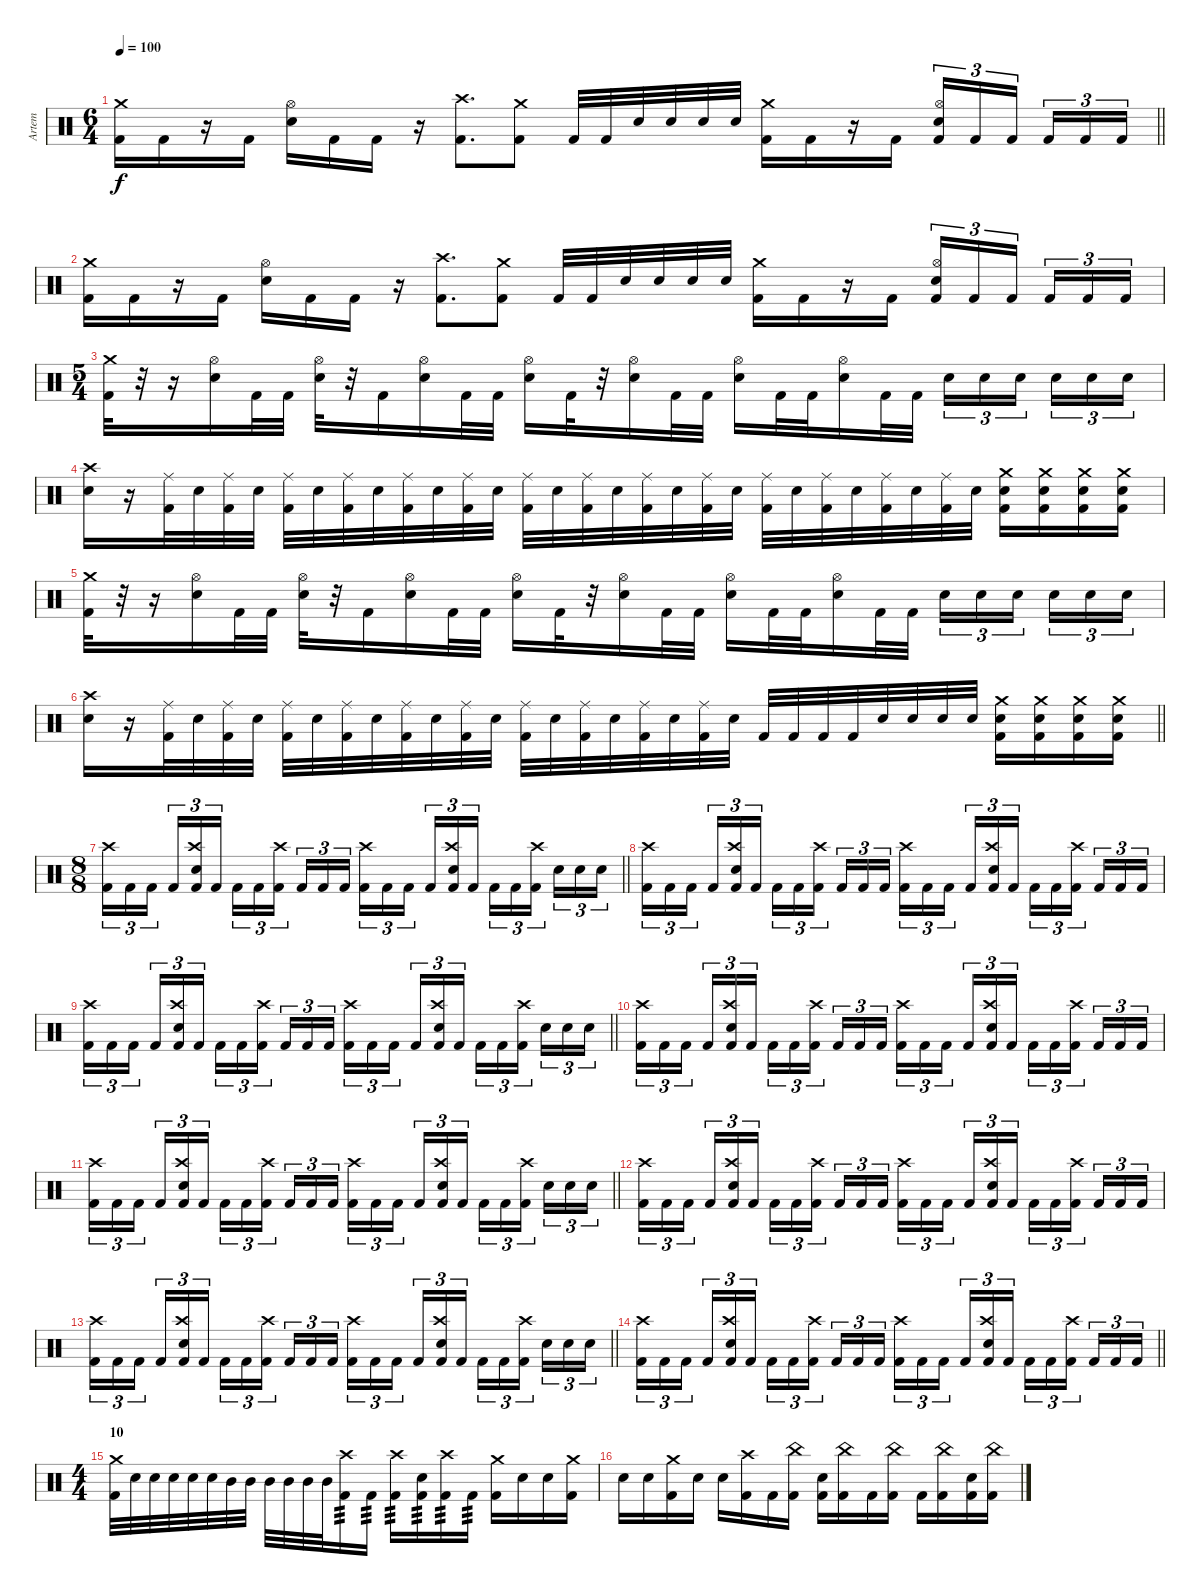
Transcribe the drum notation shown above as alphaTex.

\track ("Artem" "Artem") {instrument percussion}
\staff {score}
\articulation defaults
\ts (6 4)
\tempo 100
\clef neutral
\barLineRight lightlight
\ks c
("Crash medium (hit)" "Kick (hit) 2").16{dy f} "Kick (hit) 2".16 r.16 "Kick (hit) 2".16 ("Hi-Hat (open)" "Electric Snare (hit)").16 "Kick (hit) 2".16 "Kick (hit) 2".16 r.16 ("Crash high (hit)" "Kick (hit) 2").8{d} ("Crash medium (hit)" "Kick (hit) 2").8 "Kick (hit) 2".32 "Kick (hit) 2".32 "Snare (hit) 2".32 "Snare (hit) 2".32 "Snare (hit) 2".32 "Snare (hit) 2".32 ("Crash medium (hit)" "Kick (hit) 2").16 "Kick (hit) 2".16 r.16 "Kick (hit) 2".16{beam splitsecondary} ("Hi-Hat (open)" "Kick (hit) 2" "Electric Snare (hit)").16{tu (3 2)} "Kick (hit) 2".16{tu (3 2)} "Kick (hit) 2".16{tu (3 2) beam splitsecondary} "Kick (hit) 2".16{tu (3 2)} "Kick (hit) 2".16{tu (3 2)} "Kick (hit) 2".16{tu (3 2)} |
("Crash medium (hit)" "Kick (hit) 2").16 "Kick (hit) 2".16 r.16 "Kick (hit) 2".16 ("Hi-Hat (open)" "Electric Snare (hit)").16 "Kick (hit) 2".16 "Kick (hit) 2".16 r.16 ("Crash high (hit)" "Kick (hit) 2").8{d} ("Crash medium (hit)" "Kick (hit) 2").8 "Kick (hit) 2".32 "Kick (hit) 2".32 "Snare (hit) 2".32 "Snare (hit) 2".32 "Snare (hit) 2".32 "Snare (hit) 2".32 ("Crash medium (hit)" "Kick (hit) 2").16 "Kick (hit) 2".16 r.16 "Kick (hit) 2".16{beam splitsecondary} ("Hi-Hat (open)" "Kick (hit) 2" "Electric Snare (hit)").16{tu (3 2)} "Kick (hit) 2".16{tu (3 2)} "Kick (hit) 2".16{tu (3 2) beam splitsecondary} "Kick (hit) 2".16{tu (3 2)} "Kick (hit) 2".16{tu (3 2)} "Kick (hit) 2".16{tu (3 2)} |
\ts (5 4)
("Kick (hit) 2" "Crash medium (hit)").32 r.32 r.16 ("Electric Snare (hit)" "Hi-Hat (open)").16 "Kick (hit) 2".32 "Kick (hit) 2".32 ("Electric Snare (hit)" "Hi-Hat (open)").32 r.32 "Kick (hit) 2".16 ("Electric Snare (hit)" "Hi-Hat (open)").16 "Kick (hit) 2".32 "Kick (hit) 2".32 ("Electric Snare (hit)" "Hi-Hat (open)").16 "Kick (hit) 2".32 r.32 ("Electric Snare (hit)" "Hi-Hat (open)").16 "Kick (hit) 2".32 "Kick (hit) 2".32 ("Electric Snare (hit)" "Hi-Hat (open)").16 "Kick (hit) 2".32 "Kick (hit) 2".32 ("Electric Snare (hit)" "Hi-Hat (open)").16 "Kick (hit) 2".32 "Kick (hit) 2".32 "Snare (hit) 2".16{tu (3 2)} "Snare (hit) 2".16{tu (3 2)} "Snare (hit) 2".16{tu (3 2) beam splitsecondary} "Snare (hit) 2".16{tu (3 2)} "Snare (hit) 2".16{tu (3 2)} "Snare (hit) 2".16{tu (3 2)} |
("Electric Snare (hit)" "Crash high (hit)").16 r.16 ("Ride (middle)" "Kick (hit) 2").32 "Electric Snare (hit)".32 ("Ride (middle)" "Kick (hit) 2").32 "Electric Snare (hit)".32 ("Ride (middle)" "Kick (hit) 2").32 "Electric Snare (hit)".32 ("Ride (middle)" "Kick (hit) 2").32 "Electric Snare (hit)".32 ("Ride (middle)" "Kick (hit) 2").32 "Electric Snare (hit)".32 ("Ride (middle)" "Kick (hit) 2").32 "Electric Snare (hit)".32 ("Ride (middle)" "Kick (hit) 2").32 "Electric Snare (hit)".32 ("Ride (middle)" "Kick (hit) 2").32 "Electric Snare (hit)".32 ("Ride (middle)" "Kick (hit) 2").32 "Electric Snare (hit)".32 ("Ride (middle)" "Kick (hit) 2").32 "Electric Snare (hit)".32 ("Ride (middle)" "Kick (hit) 2").32 "Electric Snare (hit)".32 ("Ride (middle)" "Kick (hit) 2").32 "Electric Snare (hit)".32 ("Ride (middle)" "Kick (hit) 2").32 "Electric Snare (hit)".32 ("Ride (middle)" "Kick (hit) 2").32 "Electric Snare (hit)".32 ("Crash medium (hit)" "Electric Snare (hit)" "Kick (hit) 2").16 ("Crash medium (hit)" "Electric Snare (hit)" "Kick (hit) 2").16 ("Crash medium (hit)" "Electric Snare (hit)" "Kick (hit) 2").16 ("Crash medium (hit)" "Electric Snare (hit)" "Kick (hit) 2").16 |
("Kick (hit) 2" "Crash medium (hit)").32 r.32 r.16 ("Electric Snare (hit)" "Hi-Hat (open)").16 "Kick (hit) 2".32 "Kick (hit) 2".32 ("Electric Snare (hit)" "Hi-Hat (open)").32 r.32 "Kick (hit) 2".16 ("Electric Snare (hit)" "Hi-Hat (open)").16 "Kick (hit) 2".32 "Kick (hit) 2".32 ("Electric Snare (hit)" "Hi-Hat (open)").16 "Kick (hit) 2".32 r.32 ("Electric Snare (hit)" "Hi-Hat (open)").16 "Kick (hit) 2".32 "Kick (hit) 2".32 ("Electric Snare (hit)" "Hi-Hat (open)").16 "Kick (hit) 2".32 "Kick (hit) 2".32 ("Electric Snare (hit)" "Hi-Hat (open)").16 "Kick (hit) 2".32 "Kick (hit) 2".32 "Snare (hit) 2".16{tu (3 2)} "Snare (hit) 2".16{tu (3 2)} "Snare (hit) 2".16{tu (3 2) beam splitsecondary} "Snare (hit) 2".16{tu (3 2)} "Snare (hit) 2".16{tu (3 2)} "Snare (hit) 2".16{tu (3 2)} |
\barLineRight lightlight
("Electric Snare (hit)" "Crash high (hit)").16 r.16 ("Ride (middle)" "Kick (hit) 2").32 "Electric Snare (hit)".32 ("Ride (middle)" "Kick (hit) 2").32 "Electric Snare (hit)".32 ("Ride (middle)" "Kick (hit) 2").32 "Electric Snare (hit)".32 ("Ride (middle)" "Kick (hit) 2").32 "Electric Snare (hit)".32 ("Ride (middle)" "Kick (hit) 2").32 "Electric Snare (hit)".32 ("Ride (middle)" "Kick (hit) 2").32 "Electric Snare (hit)".32 ("Ride (middle)" "Kick (hit) 2").32 "Electric Snare (hit)".32 ("Ride (middle)" "Kick (hit) 2").32 "Electric Snare (hit)".32 ("Ride (middle)" "Kick (hit) 2").32 "Electric Snare (hit)".32 ("Ride (middle)" "Kick (hit) 2").32 "Electric Snare (hit)".32 "Kick (hit) 2".32 "Kick (hit) 2".32 "Kick (hit) 2".32 "Kick (hit) 2".32 "Electric Snare (hit)".32 "Electric Snare (hit)".32 "Electric Snare (hit)".32 "Electric Snare (hit)".32 ("Crash medium (hit)" "Electric Snare (hit)" "Kick (hit) 2").16 ("Crash medium (hit)" "Electric Snare (hit)" "Kick (hit) 2").16 ("Crash medium (hit)" "Electric Snare (hit)" "Kick (hit) 2").16 ("Crash medium (hit)" "Electric Snare (hit)" "Kick (hit) 2").16 |
\ts (8 8)
\barLineRight lightlight
("Kick (hit) 2" "Crash high (hit)").16{tu (3 2)} "Kick (hit) 2".16{tu (3 2)} "Kick (hit) 2".16{tu (3 2)} "Kick (hit) 2".16{tu (3 2)} ("Kick (hit) 2" "Crash high (hit)" "Snare (hit) 2").16{tu (3 2)} "Kick (hit) 2".16{tu (3 2)} "Kick (hit) 2".16{tu (3 2)} "Kick (hit) 2".16{tu (3 2)} ("Kick (hit) 2" "Crash high (hit)").16{tu (3 2)} "Kick (hit) 2".16{tu (3 2)} "Kick (hit) 2".16{tu (3 2)} "Kick (hit) 2".16{tu (3 2)} ("Kick (hit) 2" "Crash high (hit)").16{tu (3 2)} "Kick (hit) 2".16{tu (3 2)} "Kick (hit) 2".16{tu (3 2)} "Kick (hit) 2".16{tu (3 2)} ("Kick (hit) 2" "Crash high (hit)" "Snare (hit) 2").16{tu (3 2)} "Kick (hit) 2".16{tu (3 2)} "Kick (hit) 2".16{tu (3 2)} "Kick (hit) 2".16{tu (3 2)} ("Kick (hit) 2" "Crash high (hit)").16{tu (3 2)} "Snare (hit) 2".16{tu (3 2)} "Snare (hit) 2".16{tu (3 2)} "Snare (hit) 2".16{tu (3 2)} |
("Kick (hit) 2" "Crash high (hit)").16{tu (3 2)} "Kick (hit) 2".16{tu (3 2)} "Kick (hit) 2".16{tu (3 2)} "Kick (hit) 2".16{tu (3 2)} ("Kick (hit) 2" "Crash high (hit)" "Snare (hit) 2").16{tu (3 2)} "Kick (hit) 2".16{tu (3 2)} "Kick (hit) 2".16{tu (3 2)} "Kick (hit) 2".16{tu (3 2)} ("Kick (hit) 2" "Crash high (hit)").16{tu (3 2)} "Kick (hit) 2".16{tu (3 2)} "Kick (hit) 2".16{tu (3 2)} "Kick (hit) 2".16{tu (3 2)} ("Kick (hit) 2" "Crash high (hit)").16{tu (3 2)} "Kick (hit) 2".16{tu (3 2)} "Kick (hit) 2".16{tu (3 2)} "Kick (hit) 2".16{tu (3 2)} ("Kick (hit) 2" "Crash high (hit)" "Snare (hit) 2").16{tu (3 2)} "Kick (hit) 2".16{tu (3 2)} "Kick (hit) 2".16{tu (3 2)} "Kick (hit) 2".16{tu (3 2)} ("Kick (hit) 2" "Crash high (hit)").16{tu (3 2)} "Kick (hit) 2".16{tu (3 2)} "Kick (hit) 2".16{tu (3 2)} "Kick (hit) 2".16{tu (3 2)} |
\barLineRight lightlight
("Kick (hit) 2" "Crash high (hit)").16{tu (3 2)} "Kick (hit) 2".16{tu (3 2)} "Kick (hit) 2".16{tu (3 2)} "Kick (hit) 2".16{tu (3 2)} ("Kick (hit) 2" "Crash high (hit)" "Snare (hit) 2").16{tu (3 2)} "Kick (hit) 2".16{tu (3 2)} "Kick (hit) 2".16{tu (3 2)} "Kick (hit) 2".16{tu (3 2)} ("Kick (hit) 2" "Crash high (hit)").16{tu (3 2)} "Kick (hit) 2".16{tu (3 2)} "Kick (hit) 2".16{tu (3 2)} "Kick (hit) 2".16{tu (3 2)} ("Kick (hit) 2" "Crash high (hit)").16{tu (3 2)} "Kick (hit) 2".16{tu (3 2)} "Kick (hit) 2".16{tu (3 2)} "Kick (hit) 2".16{tu (3 2)} ("Kick (hit) 2" "Crash high (hit)" "Snare (hit) 2").16{tu (3 2)} "Kick (hit) 2".16{tu (3 2)} "Kick (hit) 2".16{tu (3 2)} "Kick (hit) 2".16{tu (3 2)} ("Kick (hit) 2" "Crash high (hit)").16{tu (3 2)} "Snare (hit) 2".16{tu (3 2)} "Snare (hit) 2".16{tu (3 2)} "Snare (hit) 2".16{tu (3 2)} |
("Kick (hit) 2" "Crash high (hit)").16{tu (3 2)} "Kick (hit) 2".16{tu (3 2)} "Kick (hit) 2".16{tu (3 2)} "Kick (hit) 2".16{tu (3 2)} ("Kick (hit) 2" "Crash high (hit)" "Snare (hit) 2").16{tu (3 2)} "Kick (hit) 2".16{tu (3 2)} "Kick (hit) 2".16{tu (3 2)} "Kick (hit) 2".16{tu (3 2)} ("Kick (hit) 2" "Crash high (hit)").16{tu (3 2)} "Kick (hit) 2".16{tu (3 2)} "Kick (hit) 2".16{tu (3 2)} "Kick (hit) 2".16{tu (3 2)} ("Kick (hit) 2" "Crash high (hit)").16{tu (3 2)} "Kick (hit) 2".16{tu (3 2)} "Kick (hit) 2".16{tu (3 2)} "Kick (hit) 2".16{tu (3 2)} ("Kick (hit) 2" "Crash high (hit)" "Snare (hit) 2").16{tu (3 2)} "Kick (hit) 2".16{tu (3 2)} "Kick (hit) 2".16{tu (3 2)} "Kick (hit) 2".16{tu (3 2)} ("Kick (hit) 2" "Crash high (hit)").16{tu (3 2)} "Kick (hit) 2".16{tu (3 2)} "Kick (hit) 2".16{tu (3 2)} "Kick (hit) 2".16{tu (3 2)} |
\barLineRight lightlight
("Kick (hit) 2" "Crash high (hit)").16{tu (3 2)} "Kick (hit) 2".16{tu (3 2)} "Kick (hit) 2".16{tu (3 2)} "Kick (hit) 2".16{tu (3 2)} ("Kick (hit) 2" "Crash high (hit)" "Snare (hit) 2").16{tu (3 2)} "Kick (hit) 2".16{tu (3 2)} "Kick (hit) 2".16{tu (3 2)} "Kick (hit) 2".16{tu (3 2)} ("Kick (hit) 2" "Crash high (hit)").16{tu (3 2)} "Kick (hit) 2".16{tu (3 2)} "Kick (hit) 2".16{tu (3 2)} "Kick (hit) 2".16{tu (3 2)} ("Kick (hit) 2" "Crash high (hit)").16{tu (3 2)} "Kick (hit) 2".16{tu (3 2)} "Kick (hit) 2".16{tu (3 2)} "Kick (hit) 2".16{tu (3 2)} ("Kick (hit) 2" "Crash high (hit)" "Snare (hit) 2").16{tu (3 2)} "Kick (hit) 2".16{tu (3 2)} "Kick (hit) 2".16{tu (3 2)} "Kick (hit) 2".16{tu (3 2)} ("Kick (hit) 2" "Crash high (hit)").16{tu (3 2)} "Snare (hit) 2".16{tu (3 2)} "Snare (hit) 2".16{tu (3 2)} "Snare (hit) 2".16{tu (3 2)} |
("Kick (hit) 2" "Crash high (hit)").16{tu (3 2)} "Kick (hit) 2".16{tu (3 2)} "Kick (hit) 2".16{tu (3 2)} "Kick (hit) 2".16{tu (3 2)} ("Kick (hit) 2" "Crash high (hit)" "Snare (hit) 2").16{tu (3 2)} "Kick (hit) 2".16{tu (3 2)} "Kick (hit) 2".16{tu (3 2)} "Kick (hit) 2".16{tu (3 2)} ("Kick (hit) 2" "Crash high (hit)").16{tu (3 2)} "Kick (hit) 2".16{tu (3 2)} "Kick (hit) 2".16{tu (3 2)} "Kick (hit) 2".16{tu (3 2)} ("Kick (hit) 2" "Crash high (hit)").16{tu (3 2)} "Kick (hit) 2".16{tu (3 2)} "Kick (hit) 2".16{tu (3 2)} "Kick (hit) 2".16{tu (3 2)} ("Kick (hit) 2" "Crash high (hit)" "Snare (hit) 2").16{tu (3 2)} "Kick (hit) 2".16{tu (3 2)} "Kick (hit) 2".16{tu (3 2)} "Kick (hit) 2".16{tu (3 2)} ("Kick (hit) 2" "Crash high (hit)").16{tu (3 2)} "Kick (hit) 2".16{tu (3 2)} "Kick (hit) 2".16{tu (3 2)} "Kick (hit) 2".16{tu (3 2)} |
\barLineRight lightlight
("Kick (hit) 2" "Crash high (hit)").16{tu (3 2)} "Kick (hit) 2".16{tu (3 2)} "Kick (hit) 2".16{tu (3 2)} "Kick (hit) 2".16{tu (3 2)} ("Kick (hit) 2" "Crash high (hit)" "Snare (hit) 2").16{tu (3 2)} "Kick (hit) 2".16{tu (3 2)} "Kick (hit) 2".16{tu (3 2)} "Kick (hit) 2".16{tu (3 2)} ("Kick (hit) 2" "Crash high (hit)").16{tu (3 2)} "Kick (hit) 2".16{tu (3 2)} "Kick (hit) 2".16{tu (3 2)} "Kick (hit) 2".16{tu (3 2)} ("Kick (hit) 2" "Crash high (hit)").16{tu (3 2)} "Kick (hit) 2".16{tu (3 2)} "Kick (hit) 2".16{tu (3 2)} "Kick (hit) 2".16{tu (3 2)} ("Kick (hit) 2" "Crash high (hit)" "Snare (hit) 2").16{tu (3 2)} "Kick (hit) 2".16{tu (3 2)} "Kick (hit) 2".16{tu (3 2)} "Kick (hit) 2".16{tu (3 2)} ("Kick (hit) 2" "Crash high (hit)").16{tu (3 2)} "Snare (hit) 2".16{tu (3 2)} "Snare (hit) 2".16{tu (3 2)} "Snare (hit) 2".16{tu (3 2)} |
\barLineRight lightlight
("Kick (hit) 2" "Crash high (hit)").16{tu (3 2)} "Kick (hit) 2".16{tu (3 2)} "Kick (hit) 2".16{tu (3 2)} "Kick (hit) 2".16{tu (3 2)} ("Kick (hit) 2" "Crash high (hit)" "Snare (hit) 2").16{tu (3 2)} "Kick (hit) 2".16{tu (3 2)} "Kick (hit) 2".16{tu (3 2)} "Kick (hit) 2".16{tu (3 2)} ("Kick (hit) 2" "Crash high (hit)").16{tu (3 2)} "Kick (hit) 2".16{tu (3 2)} "Kick (hit) 2".16{tu (3 2)} "Kick (hit) 2".16{tu (3 2)} ("Kick (hit) 2" "Crash high (hit)").16{tu (3 2)} "Kick (hit) 2".16{tu (3 2)} "Kick (hit) 2".16{tu (3 2)} "Kick (hit) 2".16{tu (3 2)} ("Kick (hit) 2" "Crash high (hit)" "Snare (hit) 2").16{tu (3 2)} "Kick (hit) 2".16{tu (3 2)} "Kick (hit) 2".16{tu (3 2)} "Kick (hit) 2".16{tu (3 2)} ("Kick (hit) 2" "Crash high (hit)").16{tu (3 2)} "Kick (hit) 2".16{tu (3 2)} "Kick (hit) 2".16{tu (3 2)} "Kick (hit) 2".16{tu (3 2)} |
\ts (4 4)
\section ("" "10")
("Crash medium (hit)" "Kick (hit) 2").32 "Electric Snare (hit)".32 "Electric Snare (hit)".32 "Electric Snare (hit)".32 "Electric Snare (hit)".32 "Electric Snare (hit)".32 "Mid Tom (hit)".32 "Mid Tom (hit)".32 "Mid Tom (hit)".32 "Mid Tom (hit)".32 "Mid Tom (hit)".32 "Mid Tom (hit)".32 ("Crash high (hit)" "Kick (hit) 2").16{tp 3} "Kick (hit) 2".16{tp 3} ("Crash high (hit)" "Kick (hit) 2").16{tp 3} ("Electric Snare (hit)" "Kick (hit) 2").16{tp 3} ("Crash high (hit)" "Kick (hit) 2").16{tp 3} "Kick (hit) 2".16{tp 3} ("Crash medium (hit)" "Kick (hit) 2").16 "Electric Snare (hit)".16 "Electric Snare (hit)".16 ("Crash medium (hit)" "Kick (hit) 2").16 |
"Electric Snare (hit)".16 "Electric Snare (hit)".16 ("Crash medium (hit)" "Kick (hit) 2").16 "Electric Snare (hit)".16 "Electric Snare (hit)".16 ("Crash high (hit)" "Kick (hit) 2").16 "Kick (hit) 2".16 ("China (hit)" "Kick (hit) 2").16 ("Electric Snare (hit)" "Kick (hit) 2").16 ("China (hit)" "Kick (hit) 2").16 "Kick (hit) 2".16 ("China (hit)" "Kick (hit) 2").16 "Kick (hit) 2".16 ("China (hit)" "Kick (hit) 2").16 ("Electric Snare (hit)" "Kick (hit) 2").16 ("China (hit)" "Kick (hit) 2").16
